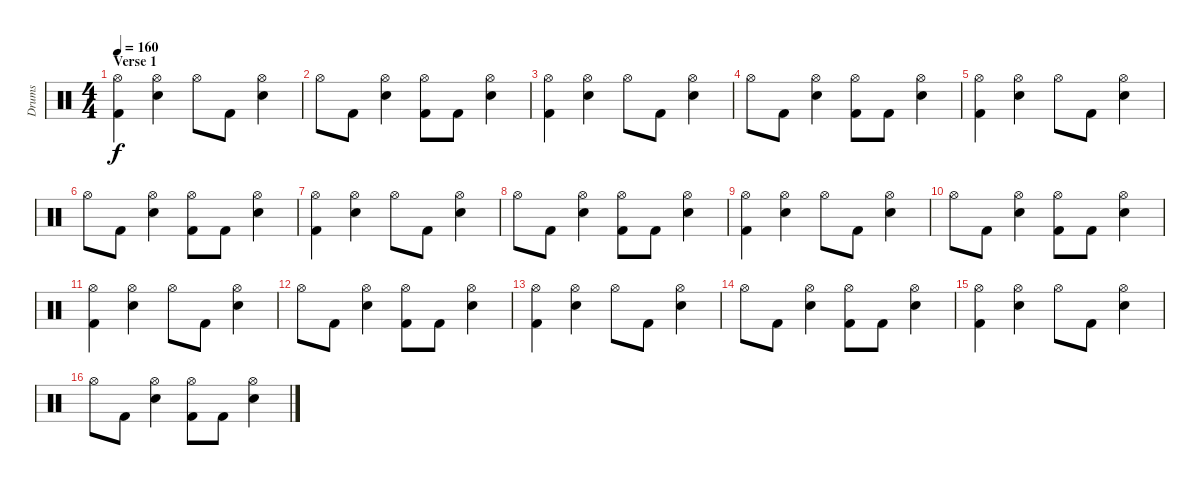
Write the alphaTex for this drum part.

\track ("Drums" "Drums") {instrument percussion}
\staff {score}
\articulation defaults
\ts (4 4)
\section ("" "Verse 1")
\tempo 160
\clef neutral
\ks c
("Hi-Hat (open)" "Kick (hit) 2").4{dy f} ("Hi-Hat (open)" "Electric Snare (hit)").4 "Hi-Hat (open)".8 "Kick (hit) 2".8 ("Hi-Hat (open)" "Electric Snare (hit)").4 |
"Hi-Hat (open)".8 "Kick (hit) 2".8 ("Hi-Hat (open)" "Electric Snare (hit)").4 ("Hi-Hat (open)" "Kick (hit) 2").8 "Kick (hit) 2".8 ("Hi-Hat (open)" "Electric Snare (hit)").4 |
("Hi-Hat (open)" "Kick (hit) 2").4 ("Hi-Hat (open)" "Electric Snare (hit)").4 "Hi-Hat (open)".8 "Kick (hit) 2".8 ("Hi-Hat (open)" "Electric Snare (hit)").4 |
"Hi-Hat (open)".8 "Kick (hit) 2".8 ("Hi-Hat (open)" "Electric Snare (hit)").4 ("Hi-Hat (open)" "Kick (hit) 2").8 "Kick (hit) 2".8 ("Hi-Hat (open)" "Electric Snare (hit)").4 |
("Hi-Hat (open)" "Kick (hit) 2").4 ("Hi-Hat (open)" "Electric Snare (hit)").4 "Hi-Hat (open)".8 "Kick (hit) 2".8 ("Hi-Hat (open)" "Electric Snare (hit)").4 |
"Hi-Hat (open)".8 "Kick (hit) 2".8 ("Hi-Hat (open)" "Electric Snare (hit)").4 ("Hi-Hat (open)" "Kick (hit) 2").8 "Kick (hit) 2".8 ("Hi-Hat (open)" "Electric Snare (hit)").4 |
("Hi-Hat (open)" "Kick (hit) 2").4 ("Hi-Hat (open)" "Electric Snare (hit)").4 "Hi-Hat (open)".8 "Kick (hit) 2".8 ("Hi-Hat (open)" "Electric Snare (hit)").4 |
"Hi-Hat (open)".8 "Kick (hit) 2".8 ("Hi-Hat (open)" "Electric Snare (hit)").4 ("Hi-Hat (open)" "Kick (hit) 2").8 "Kick (hit) 2".8 ("Hi-Hat (open)" "Electric Snare (hit)").4 |
("Hi-Hat (open)" "Kick (hit) 2").4 ("Hi-Hat (open)" "Electric Snare (hit)").4 "Hi-Hat (open)".8 "Kick (hit) 2".8 ("Hi-Hat (open)" "Electric Snare (hit)").4 |
"Hi-Hat (open)".8 "Kick (hit) 2".8 ("Hi-Hat (open)" "Electric Snare (hit)").4 ("Hi-Hat (open)" "Kick (hit) 2").8 "Kick (hit) 2".8 ("Hi-Hat (open)" "Electric Snare (hit)").4 |
("Hi-Hat (open)" "Kick (hit) 2").4 ("Hi-Hat (open)" "Electric Snare (hit)").4 "Hi-Hat (open)".8 "Kick (hit) 2".8 ("Hi-Hat (open)" "Electric Snare (hit)").4 |
"Hi-Hat (open)".8 "Kick (hit) 2".8 ("Hi-Hat (open)" "Electric Snare (hit)").4 ("Hi-Hat (open)" "Kick (hit) 2").8 "Kick (hit) 2".8 ("Hi-Hat (open)" "Electric Snare (hit)").4 |
("Hi-Hat (open)" "Kick (hit) 2").4 ("Hi-Hat (open)" "Electric Snare (hit)").4 "Hi-Hat (open)".8 "Kick (hit) 2".8 ("Hi-Hat (open)" "Electric Snare (hit)").4 |
"Hi-Hat (open)".8 "Kick (hit) 2".8 ("Hi-Hat (open)" "Electric Snare (hit)").4 ("Hi-Hat (open)" "Kick (hit) 2").8 "Kick (hit) 2".8 ("Hi-Hat (open)" "Electric Snare (hit)").4 |
("Hi-Hat (open)" "Kick (hit) 2").4 ("Hi-Hat (open)" "Electric Snare (hit)").4 "Hi-Hat (open)".8 "Kick (hit) 2".8 ("Hi-Hat (open)" "Electric Snare (hit)").4 |
"Hi-Hat (open)".8 "Kick (hit) 2".8 ("Hi-Hat (open)" "Electric Snare (hit)").4 ("Hi-Hat (open)" "Kick (hit) 2").8 "Kick (hit) 2".8 ("Hi-Hat (open)" "Electric Snare (hit)").4
